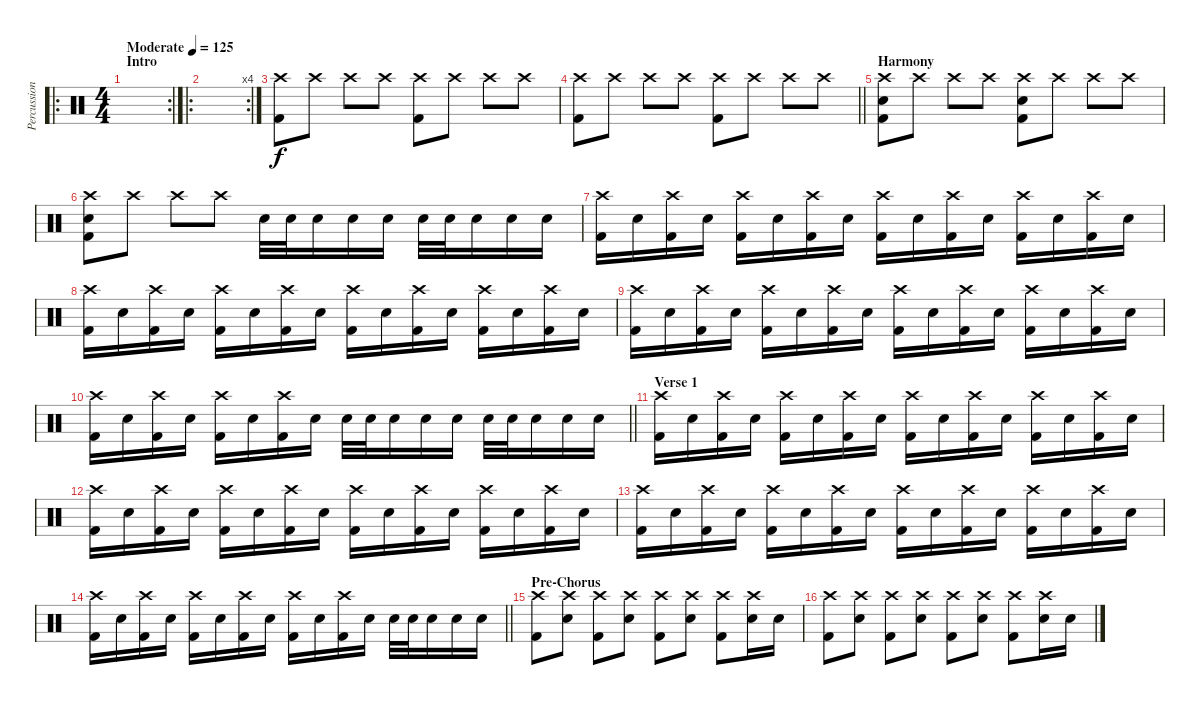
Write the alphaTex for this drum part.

\track ("Percussion" "Percussion") {instrument percussion}
\staff {score}
\articulation defaults
\ro
\rc 2
\ts (4 4)
\section ("" "Intro")
\tempo (125 "Moderate")
\clef neutral
\ks c
|
\ro
\rc 4
|
("Crash high (hit)" "Kick (hit) 2").8 "Crash high (hit)".8 "Crash high (hit)".8 "Crash high (hit)".8 ("Crash high (hit)" "Kick (hit) 2").8 "Crash high (hit)".8 "Crash high (hit)".8 "Crash high (hit)".8 |
\barLineRight lightlight
("Crash high (hit)" "Kick (hit) 2").8 "Crash high (hit)".8 "Crash high (hit)".8 "Crash high (hit)".8 ("Crash high (hit)" "Kick (hit) 2").8 "Crash high (hit)".8 "Crash high (hit)".8 "Crash high (hit)".8 |
\section ("" "Harmony")
("Crash high (hit)" "Electric Snare (hit)" "Kick (hit) 2").8 "Crash high (hit)".8 "Crash high (hit)".8 "Crash high (hit)".8 ("Crash high (hit)" "Electric Snare (hit)" "Kick (hit) 2").8 "Crash high (hit)".8 "Crash high (hit)".8 "Crash high (hit)".8 |
("Crash high (hit)" "Electric Snare (hit)" "Kick (hit) 2").8 "Crash high (hit)".8 "Crash high (hit)".8 "Crash high (hit)".8 "Electric Snare (hit)".32 "Electric Snare (hit)".32 "Electric Snare (hit)".16 "Electric Snare (hit)".16 "Electric Snare (hit)".16 "Electric Snare (hit)".32 "Electric Snare (hit)".32 "Electric Snare (hit)".16 "Electric Snare (hit)".16 "Electric Snare (hit)".16 |
("Crash high (hit)" "Kick (hit) 2").16 "Electric Snare (hit)".16 ("Crash high (hit)" "Kick (hit) 2").16 "Electric Snare (hit)".16 ("Crash high (hit)" "Kick (hit) 2").16 "Electric Snare (hit)".16 ("Crash high (hit)" "Kick (hit) 2").16 "Electric Snare (hit)".16 ("Crash high (hit)" "Kick (hit) 2").16 "Electric Snare (hit)".16 ("Crash high (hit)" "Kick (hit) 2").16 "Electric Snare (hit)".16 ("Crash high (hit)" "Kick (hit) 2").16 "Electric Snare (hit)".16 ("Crash high (hit)" "Kick (hit) 2").16 "Electric Snare (hit)".16 |
("Crash high (hit)" "Kick (hit) 2").16 "Electric Snare (hit)".16 ("Crash high (hit)" "Kick (hit) 2").16 "Electric Snare (hit)".16 ("Crash high (hit)" "Kick (hit) 2").16 "Electric Snare (hit)".16 ("Crash high (hit)" "Kick (hit) 2").16 "Electric Snare (hit)".16 ("Crash high (hit)" "Kick (hit) 2").16 "Electric Snare (hit)".16 ("Crash high (hit)" "Kick (hit) 2").16 "Electric Snare (hit)".16 ("Crash high (hit)" "Kick (hit) 2").16 "Electric Snare (hit)".16 ("Crash high (hit)" "Kick (hit) 2").16 "Electric Snare (hit)".16 |
("Crash high (hit)" "Kick (hit) 2").16 "Electric Snare (hit)".16 ("Crash high (hit)" "Kick (hit) 2").16 "Electric Snare (hit)".16 ("Crash high (hit)" "Kick (hit) 2").16 "Electric Snare (hit)".16 ("Crash high (hit)" "Kick (hit) 2").16 "Electric Snare (hit)".16 ("Crash high (hit)" "Kick (hit) 2").16 "Electric Snare (hit)".16 ("Crash high (hit)" "Kick (hit) 2").16 "Electric Snare (hit)".16 ("Crash high (hit)" "Kick (hit) 2").16 "Electric Snare (hit)".16 ("Crash high (hit)" "Kick (hit) 2").16 "Electric Snare (hit)".16 |
\barLineRight lightlight
("Crash high (hit)" "Kick (hit) 2").16 "Electric Snare (hit)".16 ("Crash high (hit)" "Kick (hit) 2").16 "Electric Snare (hit)".16 ("Crash high (hit)" "Kick (hit) 2").16 "Electric Snare (hit)".16 ("Crash high (hit)" "Kick (hit) 2").16 "Electric Snare (hit)".16 "Electric Snare (hit)".32 "Electric Snare (hit)".32 "Electric Snare (hit)".16 "Electric Snare (hit)".16 "Electric Snare (hit)".16 "Electric Snare (hit)".32 "Electric Snare (hit)".32 "Electric Snare (hit)".16 "Electric Snare (hit)".16 "Electric Snare (hit)".16 |
\section ("" "Verse 1")
("Crash high (hit)" "Kick (hit) 2").16 "Electric Snare (hit)".16 ("Crash high (hit)" "Kick (hit) 2").16 "Electric Snare (hit)".16 ("Crash high (hit)" "Kick (hit) 2").16 "Electric Snare (hit)".16 ("Crash high (hit)" "Kick (hit) 2").16 "Electric Snare (hit)".16 ("Crash high (hit)" "Kick (hit) 2").16 "Electric Snare (hit)".16 ("Crash high (hit)" "Kick (hit) 2").16 "Electric Snare (hit)".16 ("Crash high (hit)" "Kick (hit) 2").16 "Electric Snare (hit)".16 ("Crash high (hit)" "Kick (hit) 2").16 "Electric Snare (hit)".16 |
("Crash high (hit)" "Kick (hit) 2").16 "Electric Snare (hit)".16 ("Crash high (hit)" "Kick (hit) 2").16 "Electric Snare (hit)".16 ("Crash high (hit)" "Kick (hit) 2").16 "Electric Snare (hit)".16 ("Crash high (hit)" "Kick (hit) 2").16 "Electric Snare (hit)".16 ("Crash high (hit)" "Kick (hit) 2").16 "Electric Snare (hit)".16 ("Crash high (hit)" "Kick (hit) 2").16 "Electric Snare (hit)".16 ("Crash high (hit)" "Kick (hit) 2").16 "Electric Snare (hit)".16 ("Crash high (hit)" "Kick (hit) 2").16 "Electric Snare (hit)".16 |
("Crash high (hit)" "Kick (hit) 2").16 "Electric Snare (hit)".16 ("Crash high (hit)" "Kick (hit) 2").16 "Electric Snare (hit)".16 ("Crash high (hit)" "Kick (hit) 2").16 "Electric Snare (hit)".16 ("Crash high (hit)" "Kick (hit) 2").16 "Electric Snare (hit)".16 ("Crash high (hit)" "Kick (hit) 2").16 "Electric Snare (hit)".16 ("Crash high (hit)" "Kick (hit) 2").16 "Electric Snare (hit)".16 ("Crash high (hit)" "Kick (hit) 2").16 "Electric Snare (hit)".16 ("Crash high (hit)" "Kick (hit) 2").16 "Electric Snare (hit)".16 |
\barLineRight lightlight
("Crash high (hit)" "Kick (hit) 2").16 "Electric Snare (hit)".16 ("Crash high (hit)" "Kick (hit) 2").16 "Electric Snare (hit)".16 ("Crash high (hit)" "Kick (hit) 2").16 "Electric Snare (hit)".16 ("Crash high (hit)" "Kick (hit) 2").16 "Electric Snare (hit)".16 ("Crash high (hit)" "Kick (hit) 2").16 "Electric Snare (hit)".16 ("Crash high (hit)" "Kick (hit) 2").16 "Electric Snare (hit)".16 "Electric Snare (hit)".32 "Electric Snare (hit)".32 "Electric Snare (hit)".16 "Electric Snare (hit)".16 "Electric Snare (hit)".16 |
\section ("" "Pre-Chorus")
("Crash high (hit)" "Kick (hit) 2").8 ("Crash high (hit)" "Electric Snare (hit)").8 ("Crash high (hit)" "Kick (hit) 2").8 ("Crash high (hit)" "Electric Snare (hit)").8 ("Crash high (hit)" "Kick (hit) 2").8 ("Crash high (hit)" "Electric Snare (hit)").8 ("Crash high (hit)" "Kick (hit) 2").8 ("Crash high (hit)" "Electric Snare (hit)").16 "Electric Snare (hit)".16 |
("Crash high (hit)" "Kick (hit) 2").8 ("Crash high (hit)" "Electric Snare (hit)").8 ("Crash high (hit)" "Kick (hit) 2").8 ("Crash high (hit)" "Electric Snare (hit)").8 ("Crash high (hit)" "Kick (hit) 2").8 ("Crash high (hit)" "Electric Snare (hit)").8 ("Crash high (hit)" "Kick (hit) 2").8 ("Crash high (hit)" "Electric Snare (hit)").16 "Electric Snare (hit)".16
